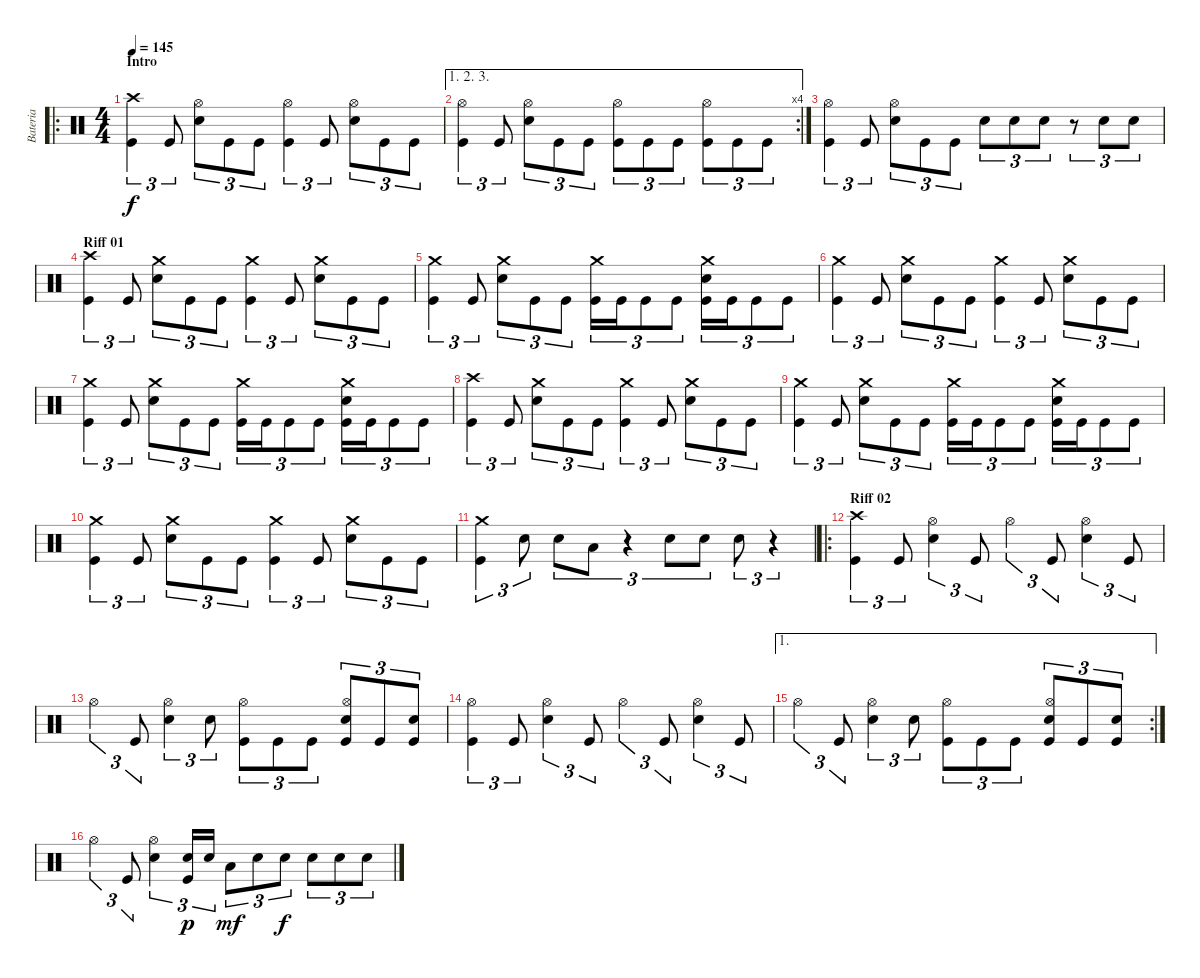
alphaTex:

\track ("Bateria" "Bateria") {instrument percussion}
\staff {score}
\articulation defaults
\ro
\ts (4 4)
\section ("" "Intro")
\tempo 145
\clef neutral
\ks c
("Crash high (hit)" "Kick (hit)").4{tu (3 2) dy f} "Kick (hit)".8{tu (3 2)} ("Hi-Hat (open)" "Snare (hit) 2").8{tu (3 2)} "Kick (hit)".8{tu (3 2)} "Kick (hit)".8{tu (3 2)} ("Hi-Hat (open)" "Kick (hit)").4{tu (3 2)} "Kick (hit)".8{tu (3 2)} ("Hi-Hat (open)" "Snare (hit) 2").8{tu (3 2)} "Kick (hit)".8{tu (3 2)} "Kick (hit)".8{tu (3 2)} |
\ae (1 2 3)
\rc 4
("Hi-Hat (open)" "Kick (hit)").4{tu (3 2)} "Kick (hit)".8{tu (3 2)} ("Hi-Hat (open)" "Snare (hit) 2").8{tu (3 2)} "Kick (hit)".8{tu (3 2)} "Kick (hit)".8{tu (3 2)} ("Hi-Hat (open)" "Kick (hit)").8{tu (3 2)} "Kick (hit)".8{tu (3 2)} "Kick (hit)".8{tu (3 2)} ("Hi-Hat (open)" "Kick (hit)").8{tu (3 2)} "Kick (hit)".8{tu (3 2)} "Kick (hit)".8{tu (3 2)} |
("Hi-Hat (open)" "Kick (hit)").4{tu (3 2)} "Kick (hit)".8{tu (3 2)} ("Hi-Hat (open)" "Snare (hit) 2").8{tu (3 2)} "Kick (hit)".8{tu (3 2)} "Kick (hit)".8{tu (3 2)} "Snare (hit) 2".8{tu (3 2)} "Snare (hit) 2".8{tu (3 2)} "Snare (hit) 2".8{tu (3 2)} r.8{tu (3 2)} "Snare (hit) 2".8{tu (3 2)} "Snare (hit) 2".8{tu (3 2)} |
\section ("" "Riff 01")
("Crash high (hit)" "Kick (hit)").4{tu (3 2)} "Kick (hit)".8{tu (3 2)} ("Crash medium (hit)" "Snare (hit) 2").8{tu (3 2)} "Kick (hit)".8{tu (3 2)} "Kick (hit)".8{tu (3 2)} ("Crash medium (hit)" "Kick (hit)").4{tu (3 2)} "Kick (hit)".8{tu (3 2)} ("Crash medium (hit)" "Snare (hit) 2").8{tu (3 2)} "Kick (hit)".8{tu (3 2)} "Kick (hit)".8{tu (3 2)} |
("Crash medium (hit)" "Kick (hit)").4{tu (3 2)} "Kick (hit)".8{tu (3 2)} ("Crash medium (hit)" "Snare (hit) 2").8{tu (3 2)} "Kick (hit)".8{tu (3 2)} "Kick (hit)".8{tu (3 2)} ("Crash medium (hit)" "Kick (hit)").16{tu (3 2)} "Kick (hit)".16{tu (3 2)} "Kick (hit)".8{tu (3 2)} "Kick (hit)".8{tu (3 2)} ("Crash medium (hit)" "Snare (hit) 2" "Kick (hit)").16{tu (3 2)} "Kick (hit)".16{tu (3 2)} "Kick (hit)".8{tu (3 2)} "Kick (hit)".8{tu (3 2)} |
("Crash medium (hit)" "Kick (hit)").4{tu (3 2)} "Kick (hit)".8{tu (3 2)} ("Crash medium (hit)" "Snare (hit) 2").8{tu (3 2)} "Kick (hit)".8{tu (3 2)} "Kick (hit)".8{tu (3 2)} ("Crash medium (hit)" "Kick (hit)").4{tu (3 2)} "Kick (hit)".8{tu (3 2)} ("Crash medium (hit)" "Snare (hit) 2").8{tu (3 2)} "Kick (hit)".8{tu (3 2)} "Kick (hit)".8{tu (3 2)} |
("Crash medium (hit)" "Kick (hit)").4{tu (3 2)} "Kick (hit)".8{tu (3 2)} ("Crash medium (hit)" "Snare (hit) 2").8{tu (3 2)} "Kick (hit)".8{tu (3 2)} "Kick (hit)".8{tu (3 2)} ("Crash medium (hit)" "Kick (hit)").16{tu (3 2)} "Kick (hit)".16{tu (3 2)} "Kick (hit)".8{tu (3 2)} "Kick (hit)".8{tu (3 2)} ("Crash medium (hit)" "Snare (hit) 2" "Kick (hit)").16{tu (3 2)} "Kick (hit)".16{tu (3 2)} "Kick (hit)".8{tu (3 2)} "Kick (hit)".8{tu (3 2)} |
("Crash high (hit)" "Kick (hit)").4{tu (3 2)} "Kick (hit)".8{tu (3 2)} ("Crash medium (hit)" "Snare (hit) 2").8{tu (3 2)} "Kick (hit)".8{tu (3 2)} "Kick (hit)".8{tu (3 2)} ("Crash medium (hit)" "Kick (hit)").4{tu (3 2)} "Kick (hit)".8{tu (3 2)} ("Crash medium (hit)" "Snare (hit) 2").8{tu (3 2)} "Kick (hit)".8{tu (3 2)} "Kick (hit)".8{tu (3 2)} |
("Crash medium (hit)" "Kick (hit)").4{tu (3 2)} "Kick (hit)".8{tu (3 2)} ("Crash medium (hit)" "Snare (hit) 2").8{tu (3 2)} "Kick (hit)".8{tu (3 2)} "Kick (hit)".8{tu (3 2)} ("Crash medium (hit)" "Kick (hit)").16{tu (3 2)} "Kick (hit)".16{tu (3 2)} "Kick (hit)".8{tu (3 2)} "Kick (hit)".8{tu (3 2)} ("Crash medium (hit)" "Snare (hit) 2" "Kick (hit)").16{tu (3 2)} "Kick (hit)".16{tu (3 2)} "Kick (hit)".8{tu (3 2)} "Kick (hit)".8{tu (3 2)} |
("Crash medium (hit)" "Kick (hit)").4{tu (3 2)} "Kick (hit)".8{tu (3 2)} ("Crash medium (hit)" "Snare (hit) 2").8{tu (3 2)} "Kick (hit)".8{tu (3 2)} "Kick (hit)".8{tu (3 2)} ("Crash medium (hit)" "Kick (hit)").4{tu (3 2)} "Kick (hit)".8{tu (3 2)} ("Crash medium (hit)" "Snare (hit) 2").8{tu (3 2)} "Kick (hit)".8{tu (3 2)} "Kick (hit)".8{tu (3 2)} |
("Crash medium (hit)" "Kick (hit)").4{tu (3 2)} "Snare (hit) 2".8{tu (3 2)} "Snare (hit) 2".8{tu (3 2)} "Low Tom (hit)".8{tu (3 2)} r.4{tu (3 2)} "Snare (hit) 2".8{tu (3 2)} "Snare (hit) 2".8{tu (3 2)} "Snare (hit) 2".8{tu (3 2)} r.4{tu (3 2)} |
\ro
\section ("" "Riff 02")
("Crash high (hit)" "Kick (hit)").4{tu (3 2)} "Kick (hit)".8{tu (3 2)} ("Hi-Hat (open)" "Snare (hit) 2").4{tu (3 2)} "Kick (hit)".8{tu (3 2)} "Hi-Hat (open)".4{tu (3 2)} "Kick (hit)".8{tu (3 2)} ("Hi-Hat (open)" "Snare (hit) 2").4{tu (3 2)} "Kick (hit)".8{tu (3 2)} |
"Hi-Hat (open)".4{tu (3 2)} "Kick (hit)".8{tu (3 2)} ("Hi-Hat (open)" "Snare (hit) 2").4{tu (3 2)} "Snare (hit) 2".8{tu (3 2)} ("Hi-Hat (open)" "Kick (hit)").8{tu (3 2)} "Kick (hit)".8{tu (3 2)} "Kick (hit)".8{tu (3 2)} ("Hi-Hat (open)" "Snare (hit) 2" "Kick (hit)").8{tu (3 2)} "Kick (hit)".8{tu (3 2)} ("Snare (hit) 2" "Kick (hit)").8{tu (3 2)} |
("Hi-Hat (open)" "Kick (hit)").4{tu (3 2)} "Kick (hit)".8{tu (3 2)} ("Hi-Hat (open)" "Snare (hit) 2").4{tu (3 2)} "Kick (hit)".8{tu (3 2)} "Hi-Hat (open)".4{tu (3 2)} "Kick (hit)".8{tu (3 2)} ("Hi-Hat (open)" "Snare (hit) 2").4{tu (3 2)} "Kick (hit)".8{tu (3 2)} |
\ae 1
\rc 2 "Hi-Hat (open)".4{tu (3 2)} "Kick (hit)".8{tu (3 2)}
("Hi-Hat (open)" "Snare (hit) 2").4{tu (3 2)} "Snare (hit) 2".8{tu (3 2)} ("Hi-Hat (open)" "Kick (hit)").8{tu (3 2)} "Kick (hit)".8{tu (3 2)} "Kick (hit)".8{tu (3 2)} ("Hi-Hat (open)" "Snare (hit) 2" "Kick (hit)").8{tu (3 2)} "Kick (hit)".8{tu (3 2)} ("Snare (hit) 2" "Kick (hit)").8{tu (3 2)} |
"Hi-Hat (open)".4{tu (3 2)} "Kick (hit)".8{tu (3 2)} ("Hi-Hat (open)" "Snare (hit) 2").4{tu (3 2)} ("Snare (hit) 2" "Kick (hit)").16{tu (3 2) dy p} "Snare (hit) 2".16{tu (3 2)} "Low Tom (hit)".8{tu (3 2) dy mf} "Snare (hit) 2".8{tu (3 2)} "Snare (hit) 2".8{tu (3 2) dy f} "Snare (hit) 2".8{tu (3 2)} "Snare (hit) 2".8{tu (3 2)} "Snare (hit) 2".8{tu (3 2)}
